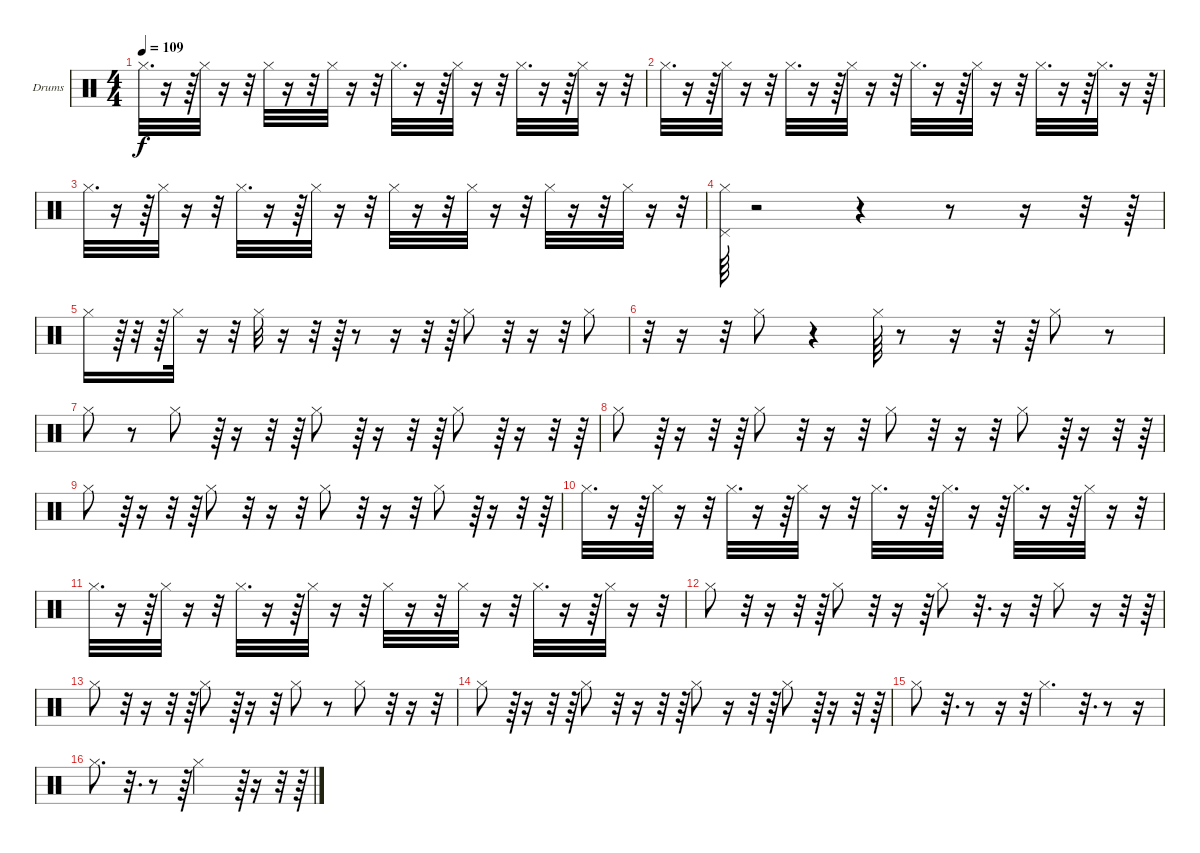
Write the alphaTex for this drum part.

\bracketExtendMode groupsimilarinstruments
\firstSystemTrackNameOrientation horizontal
\otherSystemsTrackNameOrientation horizontal
\track ("Drumkit" "Drums") {instrument percussion}
\staff {score}
\articulation defaults
\ts (4 4)
\tempo 109
\clef neutral
\ks c "Hi-Hat (closed)".32{d dy f}
r.16 r.64 "Hi-Hat (closed)".32 r.16 r.32 "Hi-Hat (closed)".32 r.16 r.32 "Hi-Hat (closed)".32 r.16 r.32 "Hi-Hat (closed)".32{d} r.16 r.64 "Hi-Hat (closed)".32 r.16 r.32 "Hi-Hat (closed)".32{d} r.16 r.64 "Hi-Hat (closed)".32 r.16 r.32 |
"Hi-Hat (closed)".32{d} r.16 r.64 "Hi-Hat (closed)".32 r.16 r.32 "Hi-Hat (closed)".32{d} r.16 r.64 "Hi-Hat (closed)".32 r.16 r.32 "Hi-Hat (closed)".32{d} r.16 r.64 "Hi-Hat (closed)".32 r.16 r.32 "Hi-Hat (closed)".32{d} r.16 r.64 "Hi-Hat (closed)".32{d} r.16 r.64 |
"Hi-Hat (closed)".32{d} r.16 r.64 "Hi-Hat (closed)".32 r.16 r.32 "Hi-Hat (closed)".32{d} r.16 r.64 "Hi-Hat (closed)".32 r.16 r.32 "Hi-Hat (closed)".32 r.16 r.32 "Hi-Hat (closed)".32 r.16 r.32 "Hi-Hat (closed)".32 r.16 r.32 "Hi-Hat (closed)".32 r.16 r.32 |
("Hi-Hat (closed)" "Pedal Hi-Hat (hit)").64 r.2 r.4 r.8 r.16 r.32 r.64 |
"Hi-Hat (closed)".16 r.64 r.32 r.64 "Hi-Hat (closed)".32 r.16 r.32 "Hi-Hat (closed)".32 r.16 r.32 r.64 r.8 r.16 r.32 r.64 "Hi-Hat (closed)".8 r.32 r.16 r.32 "Hi-Hat (closed)".8 |
r.32 r.16 r.32 "Hi-Hat (closed)".8 r.4 "Hi-Hat (closed)".64 r.8 r.16 r.32 r.64 "Hi-Hat (closed)".8 r.8 |
"Hi-Hat (closed)".8 r.8 "Hi-Hat (closed)".8 r.64 r.16 r.32 r.64 "Hi-Hat (closed)".8 r.64 r.16 r.32 r.64 "Hi-Hat (closed)".8 r.64 r.16 r.32 r.64 |
"Hi-Hat (closed)".8 r.64 r.16 r.32 r.64 "Hi-Hat (closed)".8 r.32 r.16 r.32 "Hi-Hat (closed)".8 r.32 r.16 r.32 "Hi-Hat (closed)".8 r.64 r.16 r.32 r.64 |
"Hi-Hat (closed)".8 r.64 r.16 r.32 r.64 "Hi-Hat (closed)".8 r.32 r.16 r.32 "Hi-Hat (closed)".8 r.32 r.16 r.32 "Hi-Hat (closed)".8 r.64 r.16 r.32 r.64 |
"Hi-Hat (closed)".32{d} r.16 r.64 "Hi-Hat (closed)".32 r.16 r.32 "Hi-Hat (closed)".32{d} r.16 r.64 "Hi-Hat (closed)".32 r.16 r.32 "Hi-Hat (closed)".32{d} r.16 r.64 "Hi-Hat (closed)".32{d} r.16 r.64 "Hi-Hat (closed)".32{d} r.16 r.64 "Hi-Hat (closed)".32 r.16 r.32 |
"Hi-Hat (closed)".32{d} r.16 r.64 "Hi-Hat (closed)".32 r.16 r.32 "Hi-Hat (closed)".32{d} r.16 r.64 "Hi-Hat (closed)".32 r.16 r.32 "Hi-Hat (closed)".32 r.16 r.32 "Hi-Hat (closed)".32 r.16 r.32 "Hi-Hat (closed)".32{d} r.16 r.64 "Hi-Hat (closed)".32 r.16 r.32 |
"Hi-Hat (closed)".8 r.32 r.16 r.32 r.64 "Hi-Hat (closed)".8 r.32 r.16 r.64 "Hi-Hat (closed)".8 r.32{d} r.16 r.32 "Hi-Hat (closed)".8 r.16 r.32 r.64 |
"Hi-Hat (closed)".8 r.32 r.16 r.32 r.64 "Hi-Hat (closed)".8 r.64 r.16 r.32 "Hi-Hat (closed)".8 r.8 "Hi-Hat (closed)".8 r.32 r.16 r.32 |
"Hi-Hat (closed)".8 r.64 r.16 r.32 r.64 "Hi-Hat (closed)".8 r.32 r.16 r.32 r.64 "Hi-Hat (closed)".8 r.16 r.32 r.64 "Hi-Hat (closed)".8 r.64 r.16 r.32 r.64 |
"Hi-Hat (closed)".8 r.32{d} r.8 r.16 r.32 "Hi-Hat (closed)".4{d} r.32{d} r.8 r.16 |
"Hi-Hat (closed)".8{d} r.32{d} r.8 r.64 "Hi-Hat (closed)".2 r.64 r.16 r.32 r.64
